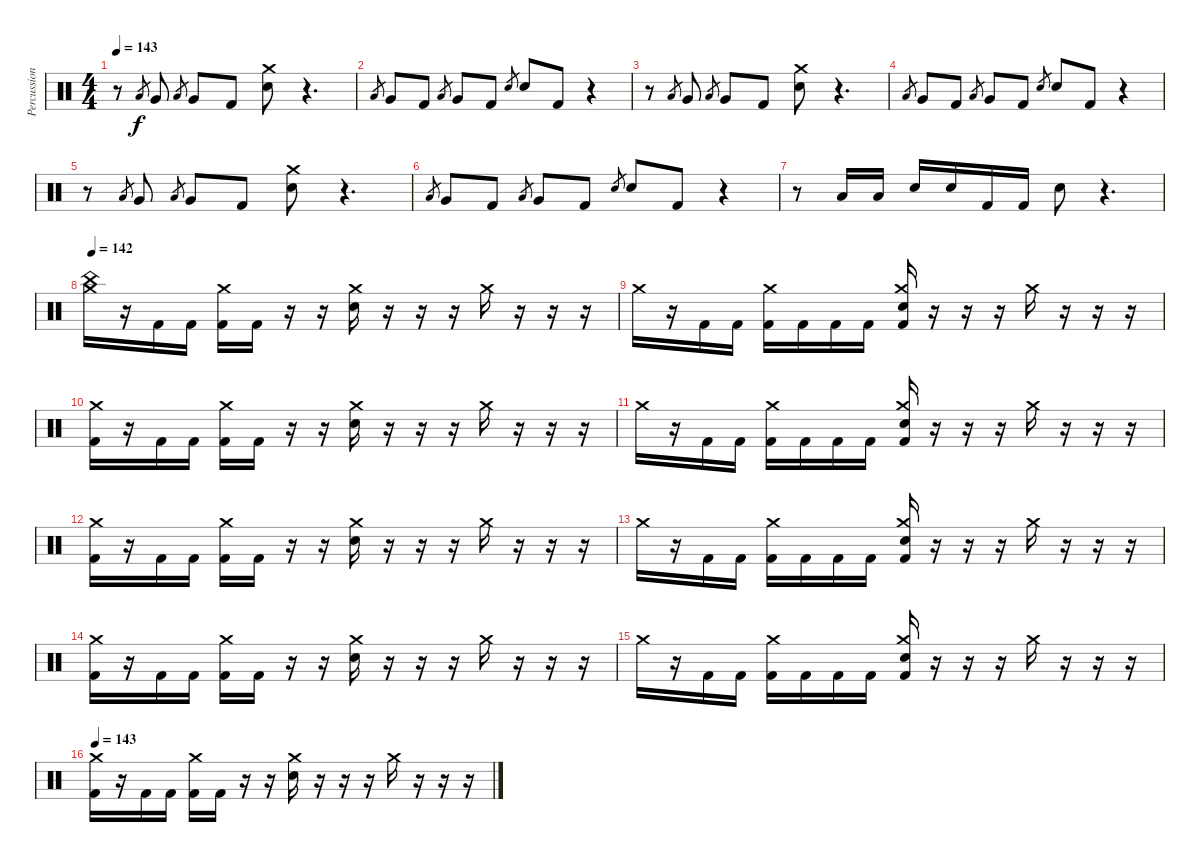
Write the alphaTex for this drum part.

\track ("Percussion" "Percussion") {instrument percussion}
\staff {score}
\articulation defaults
\ts (4 4)
\tempo 143
\clef neutral
\ks c
r.8{dy f} "Low Tom (hit)".8{gr} "Very Low Tom (hit)".8 "Low Tom (hit)".8{gr} "Very Low Tom (hit)".8 "Kick (hit) 2".8 ("Crash medium (hit)" "Electric Snare (hit)").8 r.4{d} |
"Low Tom (hit)".8{gr} "Very Low Tom (hit)".8 "Kick (hit) 2".8 "Low Tom (hit)".8{gr} "Very Low Tom (hit)".8 "Kick (hit) 2".8 "Electric Snare (hit)".8{gr} "Electric Snare (hit)".8 "Kick (hit) 2".8 r.4 |
r.8 "Low Tom (hit)".8{gr} "Very Low Tom (hit)".8 "Low Tom (hit)".8{gr} "Very Low Tom (hit)".8 "Kick (hit) 2".8 ("Crash medium (hit)" "Electric Snare (hit)").8 r.4{d} |
"Low Tom (hit)".8{gr} "Very Low Tom (hit)".8 "Kick (hit) 2".8 "Low Tom (hit)".8{gr} "Very Low Tom (hit)".8 "Kick (hit) 2".8 "Electric Snare (hit)".8{gr} "Electric Snare (hit)".8 "Kick (hit) 2".8 r.4 |
r.8 "Low Tom (hit)".8{gr} "Very Low Tom (hit)".8 "Low Tom (hit)".8{gr} "Very Low Tom (hit)".8 "Kick (hit) 2".8 ("Crash medium (hit)" "Electric Snare (hit)").8 r.4{d} |
"Low Tom (hit)".8{gr} "Very Low Tom (hit)".8 "Kick (hit) 2".8 "Low Tom (hit)".8{gr} "Very Low Tom (hit)".8 "Kick (hit) 2".8 "Electric Snare (hit)".8{gr} "Electric Snare (hit)".8 "Kick (hit) 2".8 r.4 |
r.8 "Low Tom (hit)".16 "Low Tom (hit)".16 "Electric Snare (hit)".16 "Electric Snare (hit)".16 "Kick (hit) 2".16 "Kick (hit) 2".16 "Electric Snare (hit)".8 r.4{d} |
\tempo 142
("Crash medium (hit)" "China (hit)").16 r.16 "Kick (hit) 2".16 "Kick (hit) 2".16 ("Crash medium (hit)" "Kick (hit) 2").16 "Kick (hit) 2".16 r.16 r.16 ("Crash medium (hit)" "Electric Snare (hit)").16 r.16 r.16 r.16 "Crash medium (hit)".16 r.16 r.16 r.16 |
"Crash medium (hit)".16 r.16 "Kick (hit) 2".16 "Kick (hit) 2".16 ("Crash medium (hit)" "Kick (hit) 2").16 "Kick (hit) 2".16 "Kick (hit) 2".16 "Kick (hit) 2".16 ("Crash medium (hit)" "Electric Snare (hit)" "Kick (hit) 2").16 r.16 r.16 r.16 "Crash medium (hit)".16 r.16 r.16 r.16 |
("Crash medium (hit)" "Kick (hit) 2").16 r.16 "Kick (hit) 2".16 "Kick (hit) 2".16 ("Crash medium (hit)" "Kick (hit) 2").16 "Kick (hit) 2".16 r.16 r.16 ("Crash medium (hit)" "Electric Snare (hit)").16 r.16 r.16 r.16 "Crash medium (hit)".16 r.16 r.16 r.16 |
"Crash medium (hit)".16 r.16 "Kick (hit) 2".16 "Kick (hit) 2".16 ("Crash medium (hit)" "Kick (hit) 2").16 "Kick (hit) 2".16 "Kick (hit) 2".16 "Kick (hit) 2".16 ("Crash medium (hit)" "Electric Snare (hit)" "Kick (hit) 2").16 r.16 r.16 r.16 "Crash medium (hit)".16 r.16 r.16 r.16 |
("Crash medium (hit)" "Kick (hit) 2").16 r.16 "Kick (hit) 2".16 "Kick (hit) 2".16 ("Crash medium (hit)" "Kick (hit) 2").16 "Kick (hit) 2".16 r.16 r.16 ("Crash medium (hit)" "Electric Snare (hit)").16 r.16 r.16 r.16 "Crash medium (hit)".16 r.16 r.16 r.16 |
"Crash medium (hit)".16 r.16 "Kick (hit) 2".16 "Kick (hit) 2".16 ("Crash medium (hit)" "Kick (hit) 2").16 "Kick (hit) 2".16 "Kick (hit) 2".16 "Kick (hit) 2".16 ("Crash medium (hit)" "Electric Snare (hit)" "Kick (hit) 2").16 r.16 r.16 r.16 "Crash medium (hit)".16 r.16 r.16 r.16 |
("Crash medium (hit)" "Kick (hit) 2").16 r.16 "Kick (hit) 2".16 "Kick (hit) 2".16 ("Crash medium (hit)" "Kick (hit) 2").16 "Kick (hit) 2".16 r.16 r.16 ("Crash medium (hit)" "Electric Snare (hit)").16 r.16 r.16 r.16 "Crash medium (hit)".16 r.16 r.16 r.16 |
"Crash medium (hit)".16 r.16 "Kick (hit) 2".16 "Kick (hit) 2".16 ("Crash medium (hit)" "Kick (hit) 2").16 "Kick (hit) 2".16 "Kick (hit) 2".16 "Kick (hit) 2".16 ("Crash medium (hit)" "Electric Snare (hit)" "Kick (hit) 2").16 r.16 r.16 r.16 "Crash medium (hit)".16 r.16 r.16 r.16 |
\tempo 142
\tempo 143
("Crash medium (hit)" "Kick (hit) 2").16 r.16 "Kick (hit) 2".16 "Kick (hit) 2".16 ("Crash medium (hit)" "Kick (hit) 2").16 "Kick (hit) 2".16 r.16 r.16 ("Crash medium (hit)" "Electric Snare (hit)").16 r.16 r.16 r.16 "Crash medium (hit)".16 r.16 r.16 r.16
